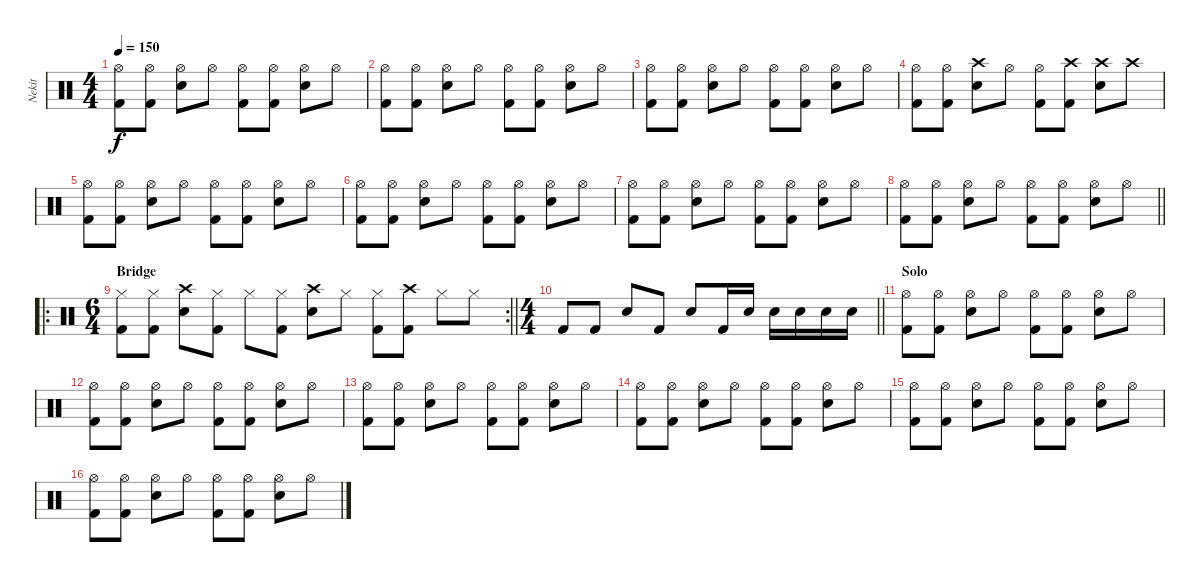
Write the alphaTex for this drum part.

\track ("Nekit" "Nekit") {instrument percussion}
\staff {score}
\articulation defaults
\ts (4 4)
\tempo 150
\clef neutral
\ks c
("Hi-Hat (open)" "Kick (hit) 2").8{dy f} ("Hi-Hat (open)" "Kick (hit) 2").8 ("Hi-Hat (open)" "Electric Snare (hit)").8 "Hi-Hat (open)".8 ("Hi-Hat (open)" "Kick (hit) 2").8 ("Hi-Hat (open)" "Kick (hit) 2").8 ("Hi-Hat (open)" "Electric Snare (hit)").8 "Hi-Hat (open)".8 |
("Hi-Hat (open)" "Kick (hit) 2").8 ("Hi-Hat (open)" "Kick (hit) 2").8 ("Hi-Hat (open)" "Electric Snare (hit)").8 "Hi-Hat (open)".8 ("Hi-Hat (open)" "Kick (hit) 2").8 ("Hi-Hat (open)" "Kick (hit) 2").8 ("Hi-Hat (open)" "Electric Snare (hit)").8 "Hi-Hat (open)".8 |
("Hi-Hat (open)" "Kick (hit) 2").8 ("Hi-Hat (open)" "Kick (hit) 2").8 ("Hi-Hat (open)" "Electric Snare (hit)").8 "Hi-Hat (open)".8 ("Hi-Hat (open)" "Kick (hit) 2").8 ("Hi-Hat (open)" "Kick (hit) 2").8 ("Hi-Hat (open)" "Electric Snare (hit)").8 "Hi-Hat (open)".8 |
("Hi-Hat (open)" "Kick (hit) 2").8 ("Hi-Hat (open)" "Kick (hit) 2").8 ("Crash high (hit)" "Electric Snare (hit)").8 "Hi-Hat (open)".8 ("Hi-Hat (open)" "Kick (hit) 2").8 ("Crash high (hit)" "Kick (hit) 2").8 ("Crash high (hit)" "Electric Snare (hit)").8 "Crash high (hit)".8 |
("Hi-Hat (open)" "Kick (hit) 2").8 ("Hi-Hat (open)" "Kick (hit) 2").8 ("Hi-Hat (open)" "Electric Snare (hit)").8 "Hi-Hat (open)".8 ("Hi-Hat (open)" "Kick (hit) 2").8 ("Hi-Hat (open)" "Kick (hit) 2").8 ("Hi-Hat (open)" "Electric Snare (hit)").8 "Hi-Hat (open)".8 |
("Hi-Hat (open)" "Kick (hit) 2").8 ("Hi-Hat (open)" "Kick (hit) 2").8 ("Hi-Hat (open)" "Electric Snare (hit)").8 "Hi-Hat (open)".8 ("Hi-Hat (open)" "Kick (hit) 2").8 ("Hi-Hat (open)" "Kick (hit) 2").8 ("Hi-Hat (open)" "Electric Snare (hit)").8 "Hi-Hat (open)".8 |
("Hi-Hat (open)" "Kick (hit) 2").8 ("Hi-Hat (open)" "Kick (hit) 2").8 ("Hi-Hat (open)" "Electric Snare (hit)").8 "Hi-Hat (open)".8 ("Hi-Hat (open)" "Kick (hit) 2").8 ("Hi-Hat (open)" "Kick (hit) 2").8 ("Hi-Hat (open)" "Electric Snare (hit)").8 "Hi-Hat (open)".8 |
\barLineRight lightlight
("Hi-Hat (open)" "Kick (hit) 2").8 ("Hi-Hat (open)" "Kick (hit) 2").8 ("Hi-Hat (open)" "Electric Snare (hit)").8 "Hi-Hat (open)".8 ("Hi-Hat (open)" "Kick (hit) 2").8 ("Hi-Hat (open)" "Kick (hit) 2").8 ("Hi-Hat (open)" "Electric Snare (hit)").8 "Hi-Hat (open)".8 |
\ro
\rc 2
\ts (6 4)
\section ("" "Bridge")
\barLineRight lightlight
("Hi-Hat (closed)" "Kick (hit) 2").8 ("Hi-Hat (closed)" "Kick (hit) 2").8 ("Crash high (hit)" "Electric Snare (hit)").8 ("Hi-Hat (closed)" "Kick (hit) 2").8 "Hi-Hat (closed)".8 ("Hi-Hat (closed)" "Kick (hit) 2").8 ("Crash high (hit)" "Electric Snare (hit)").8 "Hi-Hat (closed)".8 ("Hi-Hat (closed)" "Kick (hit) 2").8 ("Crash high (hit)" "Kick (hit) 2").8 "Hi-Hat (closed)".8 "Hi-Hat (closed)".8 |
\ts (4 4)
\barLineRight lightlight "Kick (hit) 2".8 "Kick (hit) 2".8 "Electric Snare (hit)".8 "Kick (hit) 2".8 "Electric Snare (hit)".8 "Kick (hit) 2".16 "Electric Snare (hit)".16 "Electric Snare (hit)".16 "Electric Snare (hit)".16 "Electric Snare (hit)".16 "Electric Snare (hit)".16
|
\section ("" "Solo")
("Hi-Hat (open)" "Kick (hit) 2").8 ("Hi-Hat (open)" "Kick (hit) 2").8 ("Hi-Hat (open)" "Electric Snare (hit)").8 "Hi-Hat (open)".8 ("Hi-Hat (open)" "Kick (hit) 2").8 ("Hi-Hat (open)" "Kick (hit) 2").8 ("Hi-Hat (open)" "Electric Snare (hit)").8 "Hi-Hat (open)".8 |
("Hi-Hat (open)" "Kick (hit) 2").8 ("Hi-Hat (open)" "Kick (hit) 2").8 ("Hi-Hat (open)" "Electric Snare (hit)").8 "Hi-Hat (open)".8 ("Hi-Hat (open)" "Kick (hit) 2").8 ("Hi-Hat (open)" "Kick (hit) 2").8 ("Hi-Hat (open)" "Electric Snare (hit)").8 "Hi-Hat (open)".8 |
("Hi-Hat (open)" "Kick (hit) 2").8 ("Hi-Hat (open)" "Kick (hit) 2").8 ("Hi-Hat (open)" "Electric Snare (hit)").8 "Hi-Hat (open)".8 ("Hi-Hat (open)" "Kick (hit) 2").8 ("Hi-Hat (open)" "Kick (hit) 2").8 ("Hi-Hat (open)" "Electric Snare (hit)").8 "Hi-Hat (open)".8 |
("Hi-Hat (open)" "Kick (hit) 2").8 ("Hi-Hat (open)" "Kick (hit) 2").8 ("Hi-Hat (open)" "Electric Snare (hit)").8 "Hi-Hat (open)".8 ("Hi-Hat (open)" "Kick (hit) 2").8 ("Hi-Hat (open)" "Kick (hit) 2").8 ("Hi-Hat (open)" "Electric Snare (hit)").8 "Hi-Hat (open)".8 |
("Hi-Hat (open)" "Kick (hit) 2").8 ("Hi-Hat (open)" "Kick (hit) 2").8 ("Hi-Hat (open)" "Electric Snare (hit)").8 "Hi-Hat (open)".8 ("Hi-Hat (open)" "Kick (hit) 2").8 ("Hi-Hat (open)" "Kick (hit) 2").8 ("Hi-Hat (open)" "Electric Snare (hit)").8 "Hi-Hat (open)".8 |
("Hi-Hat (open)" "Kick (hit) 2").8 ("Hi-Hat (open)" "Kick (hit) 2").8 ("Hi-Hat (open)" "Electric Snare (hit)").8 "Hi-Hat (open)".8 ("Hi-Hat (open)" "Kick (hit) 2").8 ("Hi-Hat (open)" "Kick (hit) 2").8 ("Hi-Hat (open)" "Electric Snare (hit)").8 "Hi-Hat (open)".8
